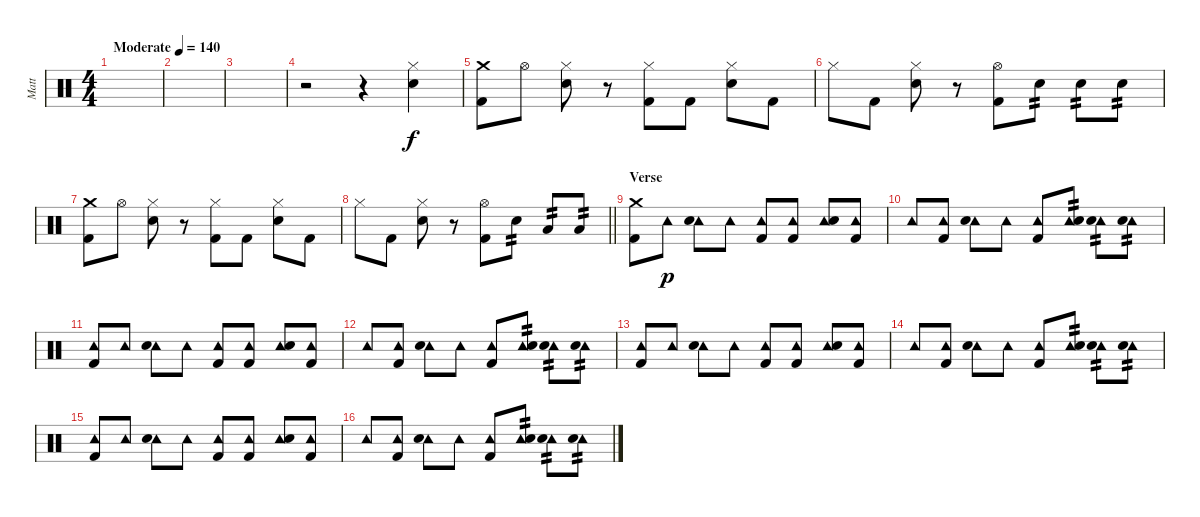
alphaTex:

\track ("Matt" "Matt") {instrument percussion}
\staff {score}
\articulation defaults
\ts (4 4)
\tempo (140 "Moderate")
\clef neutral
\ks c
|
|
|
r.2 r.4 ("Hi-Hat (closed)" "Snare (hit) 2").4 |
("Crash medium (hit)" "Kick (hit) 2").8 "Hi-Hat (open)".8 ("Hi-Hat (closed)" "Snare (hit) 2").8 r.8 ("Hi-Hat (closed)" "Kick (hit) 2").8 "Kick (hit) 2".8 ("Hi-Hat (closed)" "Snare (hit) 2").8 "Kick (hit) 2".8 |
"Hi-Hat (closed)".8 "Kick (hit) 2".8 ("Hi-Hat (closed)" "Snare (hit) 2").8 r.8 ("Hi-Hat (open)" "Kick (hit) 2").8 "Snare (hit) 2".8{tp 2} "Snare (hit) 2".8{tp 2} "Snare (hit) 2".8{tp 2} |
("Crash medium (hit)" "Kick (hit) 2").8 "Hi-Hat (open)".8 ("Hi-Hat (closed)" "Snare (hit) 2").8 r.8 ("Hi-Hat (closed)" "Kick (hit) 2").8 "Kick (hit) 2".8 ("Hi-Hat (closed)" "Snare (hit) 2").8 "Kick (hit) 2".8 |
\barLineRight lightlight "Hi-Hat (closed)".8 "Kick (hit) 2".8
("Hi-Hat (closed)" "Snare (hit) 2").8 r.8 ("Hi-Hat (open)" "Kick (hit) 2").8 "Snare (hit) 2".8{tp 2} "Low Tom (hit)".8{tp 2} "Low Floor Tom (hit)".8{tp 2} |
\section ("" "Verse")
("Crash medium (hit)" "Kick (hit) 2").8 "Tambourine (hit)".8{dy p} ("Tambourine (hit)" "Snare (hit) 2").8 "Tambourine (hit)".8 ("Tambourine (hit)" "Kick (hit) 2").8 ("Tambourine (hit)" "Kick (hit) 2").8 ("Tambourine (hit)" "Snare (hit) 2").8 ("Tambourine (hit)" "Kick (hit) 2").8 |
"Tambourine (hit)".8 ("Tambourine (hit)" "Kick (hit) 2").8 ("Tambourine (hit)" "Snare (hit) 2").8 "Tambourine (hit)".8 ("Tambourine (hit)" "Kick (hit) 2").8 ("Tambourine (hit)" "Snare (hit) 2").8{tp 2} ("Tambourine (hit)" "Snare (hit) 2").8{tp 2} ("Tambourine (hit)" "Snare (hit) 2").8{tp 2} |
("Tambourine (hit)" "Kick (hit) 2").8 "Tambourine (hit)".8 ("Tambourine (hit)" "Snare (hit) 2").8 "Tambourine (hit)".8 ("Tambourine (hit)" "Kick (hit) 2").8 ("Tambourine (hit)" "Kick (hit) 2").8 ("Tambourine (hit)" "Snare (hit) 2").8 ("Tambourine (hit)" "Kick (hit) 2").8 |
"Tambourine (hit)".8 ("Tambourine (hit)" "Kick (hit) 2").8 ("Tambourine (hit)" "Snare (hit) 2").8 "Tambourine (hit)".8 ("Tambourine (hit)" "Kick (hit) 2").8 ("Tambourine (hit)" "Snare (hit) 2").8{tp 2} ("Tambourine (hit)" "Snare (hit) 2").8{tp 2} ("Tambourine (hit)" "Snare (hit) 2").8{tp 2} |
("Tambourine (hit)" "Kick (hit) 2").8 "Tambourine (hit)".8 ("Tambourine (hit)" "Snare (hit) 2").8 "Tambourine (hit)".8 ("Tambourine (hit)" "Kick (hit) 2").8 ("Tambourine (hit)" "Kick (hit) 2").8 ("Tambourine (hit)" "Snare (hit) 2").8 ("Tambourine (hit)" "Kick (hit) 2").8 |
"Tambourine (hit)".8 ("Tambourine (hit)" "Kick (hit) 2").8 ("Tambourine (hit)" "Snare (hit) 2").8 "Tambourine (hit)".8 ("Tambourine (hit)" "Kick (hit) 2").8 ("Tambourine (hit)" "Snare (hit) 2").8{tp 2} ("Tambourine (hit)" "Snare (hit) 2").8{tp 2} ("Tambourine (hit)" "Snare (hit) 2").8{tp 2} |
("Tambourine (hit)" "Kick (hit) 2").8 "Tambourine (hit)".8 ("Tambourine (hit)" "Snare (hit) 2").8 "Tambourine (hit)".8 ("Tambourine (hit)" "Kick (hit) 2").8 ("Tambourine (hit)" "Kick (hit) 2").8 ("Tambourine (hit)" "Snare (hit) 2").8 ("Tambourine (hit)" "Kick (hit) 2").8 |
"Tambourine (hit)".8 ("Tambourine (hit)" "Kick (hit) 2").8 ("Tambourine (hit)" "Snare (hit) 2").8 "Tambourine (hit)".8 ("Tambourine (hit)" "Kick (hit) 2").8 ("Tambourine (hit)" "Snare (hit) 2").8{tp 2} ("Tambourine (hit)" "Snare (hit) 2").8{tp 2} ("Tambourine (hit)" "Snare (hit) 2").8{tp 2}
